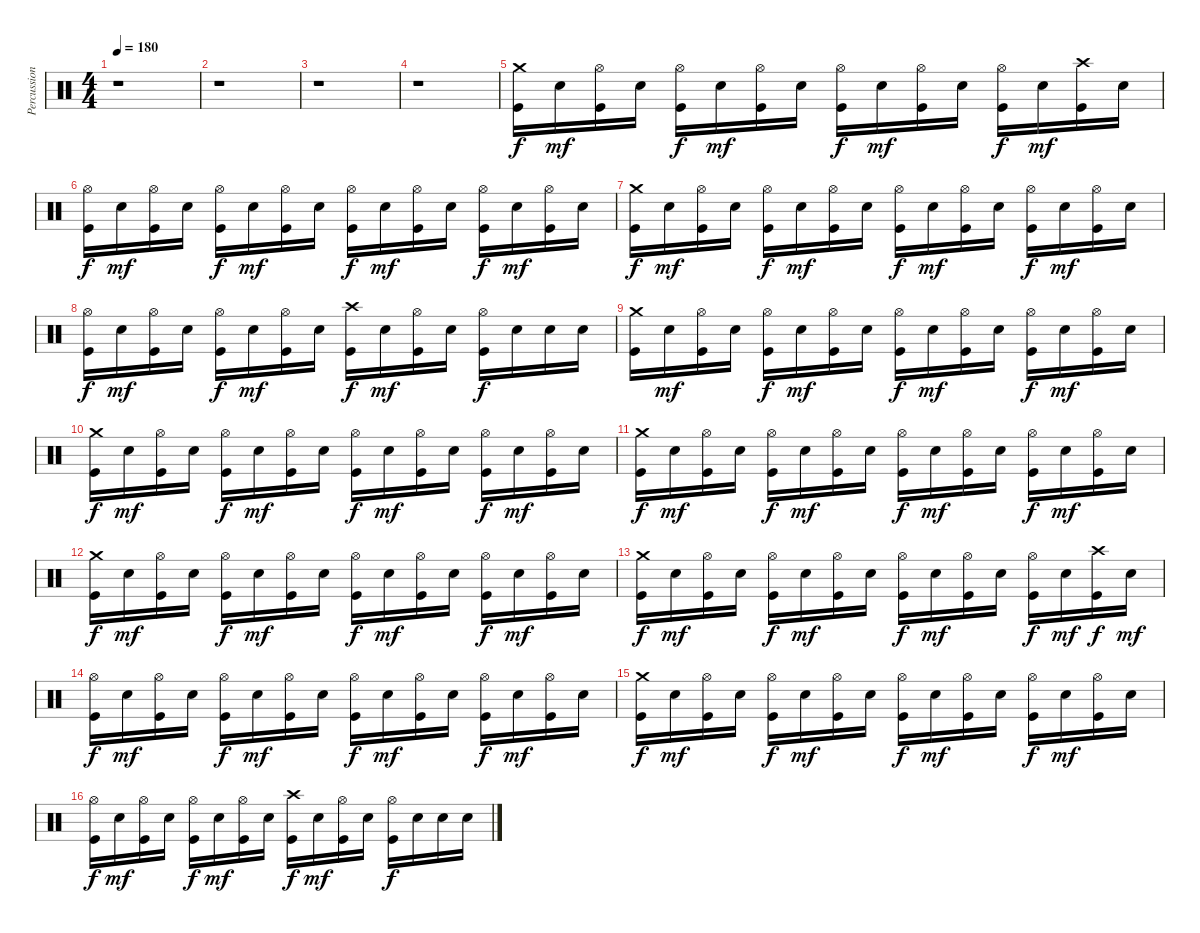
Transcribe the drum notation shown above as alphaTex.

\track ("Percussions" "Percussion") {instrument percussion}
\staff {score}
\articulation defaults
\ts (4 4)
\tempo 180
\clef neutral
\ks c
r.1{dy f} |
r.1 |
r.1 |
r.1 |
("Crash medium (hit)" "Kick (hit)").16 "Electric Snare (hit)".16{dy mf} ("Hi-Hat (open)" "Kick (hit)").16 "Electric Snare (hit)".16 ("Hi-Hat (open)" "Kick (hit)").16{dy f} "Electric Snare (hit)".16{dy mf} ("Hi-Hat (open)" "Kick (hit)").16 "Electric Snare (hit)".16 ("Hi-Hat (open)" "Kick (hit)").16{dy f} "Electric Snare (hit)".16{dy mf} ("Hi-Hat (open)" "Kick (hit)").16 "Electric Snare (hit)".16 ("Hi-Hat (open)" "Kick (hit)").16{dy f} "Electric Snare (hit)".16{dy mf} ("Crash high (hit)" "Kick (hit)").16 "Electric Snare (hit)".16 |
("Hi-Hat (open)" "Kick (hit)").16{dy f} "Electric Snare (hit)".16{dy mf} ("Hi-Hat (open)" "Kick (hit)").16 "Electric Snare (hit)".16 ("Hi-Hat (open)" "Kick (hit)").16{dy f} "Electric Snare (hit)".16{dy mf} ("Hi-Hat (open)" "Kick (hit)").16 "Electric Snare (hit)".16 ("Hi-Hat (open)" "Kick (hit)").16{dy f} "Electric Snare (hit)".16{dy mf} ("Hi-Hat (open)" "Kick (hit)").16 "Electric Snare (hit)".16 ("Hi-Hat (open)" "Kick (hit)").16{dy f} "Electric Snare (hit)".16{dy mf} ("Hi-Hat (open)" "Kick (hit)").16 "Electric Snare (hit)".16 |
("Crash medium (hit)" "Kick (hit)").16{dy f} "Electric Snare (hit)".16{dy mf} ("Hi-Hat (open)" "Kick (hit)").16 "Electric Snare (hit)".16 ("Hi-Hat (open)" "Kick (hit)").16{dy f} "Electric Snare (hit)".16{dy mf} ("Hi-Hat (open)" "Kick (hit)").16 "Electric Snare (hit)".16 ("Hi-Hat (open)" "Kick (hit)").16{dy f} "Electric Snare (hit)".16{dy mf} ("Hi-Hat (open)" "Kick (hit)").16 "Electric Snare (hit)".16 ("Hi-Hat (open)" "Kick (hit)").16{dy f} "Electric Snare (hit)".16{dy mf} ("Hi-Hat (open)" "Kick (hit)").16 "Electric Snare (hit)".16 |
("Hi-Hat (open)" "Kick (hit)").16{dy f} "Electric Snare (hit)".16{dy mf} ("Hi-Hat (open)" "Kick (hit)").16 "Electric Snare (hit)".16 ("Hi-Hat (open)" "Kick (hit)").16{dy f} "Electric Snare (hit)".16{dy mf} ("Hi-Hat (open)" "Kick (hit)").16 "Electric Snare (hit)".16 ("Crash high (hit)" "Kick (hit)").16{dy f} "Electric Snare (hit)".16{dy mf} ("Hi-Hat (open)" "Kick (hit)").16 "Electric Snare (hit)".16 ("Hi-Hat (open)" "Kick (hit)").16{dy f} "Electric Snare (hit)".16 "Electric Snare (hit)".16 "Electric Snare (hit)".16 |
("Crash medium (hit)" "Kick (hit)").16 "Electric Snare (hit)".16{dy mf} ("Hi-Hat (open)" "Kick (hit)").16 "Electric Snare (hit)".16 ("Hi-Hat (open)" "Kick (hit)").16{dy f} "Electric Snare (hit)".16{dy mf} ("Hi-Hat (open)" "Kick (hit)").16 "Electric Snare (hit)".16 ("Hi-Hat (open)" "Kick (hit)").16{dy f} "Electric Snare (hit)".16{dy mf} ("Hi-Hat (open)" "Kick (hit)").16 "Electric Snare (hit)".16 ("Hi-Hat (open)" "Kick (hit)").16{dy f} "Electric Snare (hit)".16{dy mf} ("Hi-Hat (open)" "Kick (hit)").16 "Electric Snare (hit)".16 |
("Crash medium (hit)" "Kick (hit)").16{dy f} "Electric Snare (hit)".16{dy mf} ("Hi-Hat (open)" "Kick (hit)").16 "Electric Snare (hit)".16 ("Hi-Hat (open)" "Kick (hit)").16{dy f} "Electric Snare (hit)".16{dy mf} ("Hi-Hat (open)" "Kick (hit)").16 "Electric Snare (hit)".16 ("Hi-Hat (open)" "Kick (hit)").16{dy f} "Electric Snare (hit)".16{dy mf} ("Hi-Hat (open)" "Kick (hit)").16 "Electric Snare (hit)".16 ("Hi-Hat (open)" "Kick (hit)").16{dy f} "Electric Snare (hit)".16{dy mf} ("Hi-Hat (open)" "Kick (hit)").16 "Electric Snare (hit)".16 |
("Crash medium (hit)" "Kick (hit)").16{dy f} "Electric Snare (hit)".16{dy mf} ("Hi-Hat (open)" "Kick (hit)").16 "Electric Snare (hit)".16 ("Hi-Hat (open)" "Kick (hit)").16{dy f} "Electric Snare (hit)".16{dy mf} ("Hi-Hat (open)" "Kick (hit)").16 "Electric Snare (hit)".16 ("Hi-Hat (open)" "Kick (hit)").16{dy f} "Electric Snare (hit)".16{dy mf} ("Hi-Hat (open)" "Kick (hit)").16 "Electric Snare (hit)".16 ("Hi-Hat (open)" "Kick (hit)").16{dy f} "Electric Snare (hit)".16{dy mf} ("Hi-Hat (open)" "Kick (hit)").16 "Electric Snare (hit)".16 |
("Crash medium (hit)" "Kick (hit)").16{dy f} "Electric Snare (hit)".16{dy mf} ("Hi-Hat (open)" "Kick (hit)").16 "Electric Snare (hit)".16 ("Hi-Hat (open)" "Kick (hit)").16{dy f} "Electric Snare (hit)".16{dy mf} ("Hi-Hat (open)" "Kick (hit)").16 "Electric Snare (hit)".16 ("Hi-Hat (open)" "Kick (hit)").16{dy f} "Electric Snare (hit)".16{dy mf} ("Hi-Hat (open)" "Kick (hit)").16 "Electric Snare (hit)".16 ("Hi-Hat (open)" "Kick (hit)").16{dy f} "Electric Snare (hit)".16{dy mf} ("Hi-Hat (open)" "Kick (hit)").16 "Electric Snare (hit)".16 |
("Crash medium (hit)" "Kick (hit)").16{dy f} "Electric Snare (hit)".16{dy mf} ("Hi-Hat (open)" "Kick (hit)").16 "Electric Snare (hit)".16 ("Hi-Hat (open)" "Kick (hit)").16{dy f} "Electric Snare (hit)".16{dy mf} ("Hi-Hat (open)" "Kick (hit)").16 "Electric Snare (hit)".16 ("Hi-Hat (open)" "Kick (hit)").16{dy f} "Electric Snare (hit)".16{dy mf} ("Hi-Hat (open)" "Kick (hit)").16 "Electric Snare (hit)".16 ("Hi-Hat (open)" "Kick (hit)").16{dy f} "Electric Snare (hit)".16{dy mf} ("Crash high (hit)" "Kick (hit)").16{dy f} "Electric Snare (hit)".16{dy mf} |
("Hi-Hat (open)" "Kick (hit)").16{dy f} "Electric Snare (hit)".16{dy mf} ("Hi-Hat (open)" "Kick (hit)").16 "Electric Snare (hit)".16 ("Hi-Hat (open)" "Kick (hit)").16{dy f} "Electric Snare (hit)".16{dy mf} ("Hi-Hat (open)" "Kick (hit)").16 "Electric Snare (hit)".16 ("Hi-Hat (open)" "Kick (hit)").16{dy f} "Electric Snare (hit)".16{dy mf} ("Hi-Hat (open)" "Kick (hit)").16 "Electric Snare (hit)".16 ("Hi-Hat (open)" "Kick (hit)").16{dy f} "Electric Snare (hit)".16{dy mf} ("Hi-Hat (open)" "Kick (hit)").16 "Electric Snare (hit)".16 |
("Crash medium (hit)" "Kick (hit)").16{dy f} "Electric Snare (hit)".16{dy mf} ("Hi-Hat (open)" "Kick (hit)").16 "Electric Snare (hit)".16 ("Hi-Hat (open)" "Kick (hit)").16{dy f} "Electric Snare (hit)".16{dy mf} ("Hi-Hat (open)" "Kick (hit)").16 "Electric Snare (hit)".16 ("Hi-Hat (open)" "Kick (hit)").16{dy f} "Electric Snare (hit)".16{dy mf} ("Hi-Hat (open)" "Kick (hit)").16 "Electric Snare (hit)".16 ("Hi-Hat (open)" "Kick (hit)").16{dy f} "Electric Snare (hit)".16{dy mf} ("Hi-Hat (open)" "Kick (hit)").16 "Electric Snare (hit)".16 |
("Hi-Hat (open)" "Kick (hit)").16{dy f} "Electric Snare (hit)".16{dy mf} ("Hi-Hat (open)" "Kick (hit)").16 "Electric Snare (hit)".16 ("Hi-Hat (open)" "Kick (hit)").16{dy f} "Electric Snare (hit)".16{dy mf} ("Hi-Hat (open)" "Kick (hit)").16 "Electric Snare (hit)".16 ("Crash high (hit)" "Kick (hit)").16{dy f} "Electric Snare (hit)".16{dy mf} ("Hi-Hat (open)" "Kick (hit)").16 "Electric Snare (hit)".16 ("Hi-Hat (open)" "Kick (hit)").16{dy f} "Electric Snare (hit)".16 "Electric Snare (hit)".16 "Electric Snare (hit)".16
